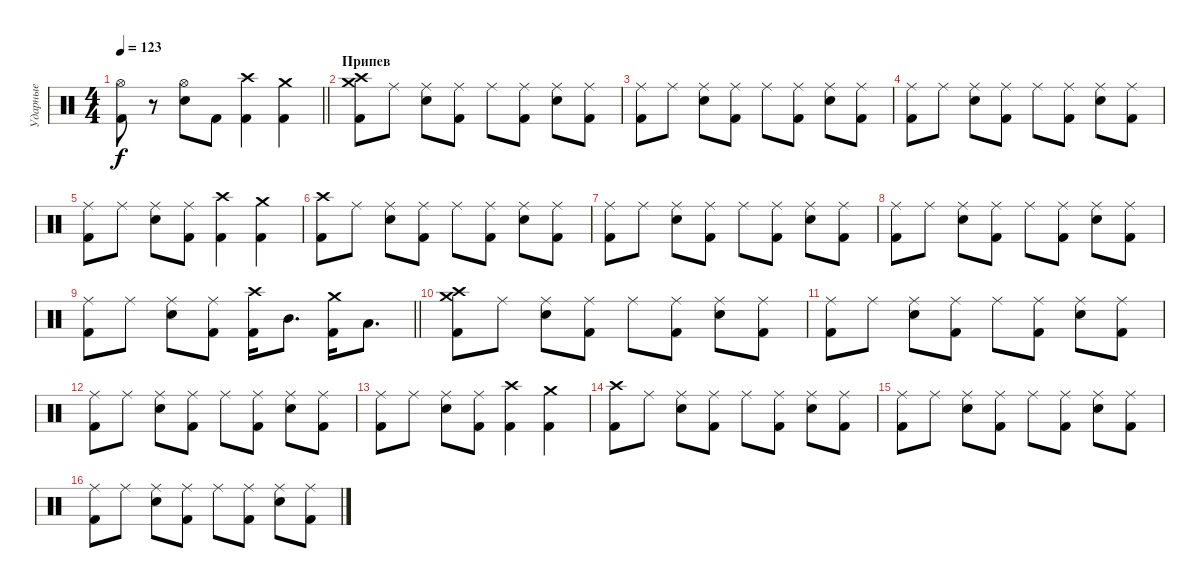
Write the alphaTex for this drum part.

\track ("Ударные" "Ударные") {instrument percussion}
\staff {score}
\articulation defaults
\ts (4 4)
\tempo 123
\clef neutral
\barLineRight lightlight
\ks c
("Hi-Hat (open)" "Kick (hit) 2").8{dy f} r.8 ("Hi-Hat (open)" "Electric Snare (hit)").8 "Kick (hit) 2".8 ("Kick (hit) 2" "Crash high (hit)").4 ("Kick (hit) 2" "Crash medium (hit)").4 |
\section ("" "Припев")
("Crash high (hit)" "Kick (hit) 2" "Crash medium (hit)").8 "Ride (middle)".8 ("Ride (middle)" "Electric Snare (hit)").8 ("Ride (middle)" "Kick (hit) 2").8 "Ride (middle)".8 ("Ride (middle)" "Kick (hit) 2").8 ("Ride (middle)" "Electric Snare (hit)").8 ("Ride (middle)" "Kick (hit) 2").8 |
("Ride (middle)" "Kick (hit) 2").8 "Ride (middle)".8 ("Ride (middle)" "Electric Snare (hit)").8 ("Ride (middle)" "Kick (hit) 2").8 "Ride (middle)".8 ("Ride (middle)" "Kick (hit) 2").8 ("Ride (middle)" "Electric Snare (hit)").8 ("Ride (middle)" "Kick (hit) 2").8 |
("Ride (middle)" "Kick (hit) 2").8 "Ride (middle)".8 ("Ride (middle)" "Electric Snare (hit)").8 ("Ride (middle)" "Kick (hit) 2").8 "Ride (middle)".8 ("Ride (middle)" "Kick (hit) 2").8 ("Ride (middle)" "Electric Snare (hit)").8 ("Ride (middle)" "Kick (hit) 2").8 |
("Ride (middle)" "Kick (hit) 2").8 "Ride (middle)".8 ("Ride (middle)" "Electric Snare (hit)").8 ("Ride (middle)" "Kick (hit) 2").8 ("Kick (hit) 2" "Crash high (hit)").4 ("Kick (hit) 2" "Crash medium (hit)").4 |
("Crash high (hit)" "Kick (hit) 2").8 "Ride (middle)".8 ("Ride (middle)" "Electric Snare (hit)").8 ("Ride (middle)" "Kick (hit) 2").8 "Ride (middle)".8 ("Ride (middle)" "Kick (hit) 2").8 ("Ride (middle)" "Electric Snare (hit)").8 ("Ride (middle)" "Kick (hit) 2").8 |
("Ride (middle)" "Kick (hit) 2").8 "Ride (middle)".8 ("Ride (middle)" "Electric Snare (hit)").8 ("Ride (middle)" "Kick (hit) 2").8 "Ride (middle)".8 ("Ride (middle)" "Kick (hit) 2").8 ("Ride (middle)" "Electric Snare (hit)").8 ("Ride (middle)" "Kick (hit) 2").8 |
("Ride (middle)" "Kick (hit) 2").8 "Ride (middle)".8 ("Ride (middle)" "Electric Snare (hit)").8 ("Ride (middle)" "Kick (hit) 2").8 "Ride (middle)".8 ("Ride (middle)" "Kick (hit) 2").8 ("Ride (middle)" "Electric Snare (hit)").8 ("Ride (middle)" "Kick (hit) 2").8 |
\barLineRight lightlight
("Ride (middle)" "Kick (hit) 2").8 "Ride (middle)".8 ("Ride (middle)" "Electric Snare (hit)").8 ("Ride (middle)" "Kick (hit) 2").8 ("Kick (hit) 2" "Crash high (hit)").16 "Mid Tom (hit)".8{d} ("Kick (hit) 2" "Crash medium (hit)").16 "Low Tom (hit)".8{d} |
("Crash high (hit)" "Kick (hit) 2" "Crash medium (hit)").8 "Ride (middle)".8 ("Ride (middle)" "Electric Snare (hit)").8 ("Ride (middle)" "Kick (hit) 2").8 "Ride (middle)".8 ("Ride (middle)" "Kick (hit) 2").8 ("Ride (middle)" "Electric Snare (hit)").8 ("Ride (middle)" "Kick (hit) 2").8 |
("Ride (middle)" "Kick (hit) 2").8 "Ride (middle)".8 ("Ride (middle)" "Electric Snare (hit)").8 ("Ride (middle)" "Kick (hit) 2").8 "Ride (middle)".8 ("Ride (middle)" "Kick (hit) 2").8 ("Ride (middle)" "Electric Snare (hit)").8 ("Ride (middle)" "Kick (hit) 2").8 |
("Ride (middle)" "Kick (hit) 2").8 "Ride (middle)".8 ("Ride (middle)" "Electric Snare (hit)").8 ("Ride (middle)" "Kick (hit) 2").8 "Ride (middle)".8 ("Ride (middle)" "Kick (hit) 2").8 ("Ride (middle)" "Electric Snare (hit)").8 ("Ride (middle)" "Kick (hit) 2").8 |
("Ride (middle)" "Kick (hit) 2").8 "Ride (middle)".8 ("Ride (middle)" "Electric Snare (hit)").8 ("Ride (middle)" "Kick (hit) 2").8 ("Kick (hit) 2" "Crash high (hit)").4 ("Kick (hit) 2" "Crash medium (hit)").4 |
("Crash high (hit)" "Kick (hit) 2").8 "Ride (middle)".8 ("Ride (middle)" "Electric Snare (hit)").8 ("Ride (middle)" "Kick (hit) 2").8 "Ride (middle)".8 ("Ride (middle)" "Kick (hit) 2").8 ("Ride (middle)" "Electric Snare (hit)").8 ("Ride (middle)" "Kick (hit) 2").8 |
("Ride (middle)" "Kick (hit) 2").8 "Ride (middle)".8 ("Ride (middle)" "Electric Snare (hit)").8 ("Ride (middle)" "Kick (hit) 2").8 "Ride (middle)".8 ("Ride (middle)" "Kick (hit) 2").8 ("Ride (middle)" "Electric Snare (hit)").8 ("Ride (middle)" "Kick (hit) 2").8 |
("Ride (middle)" "Kick (hit) 2").8 "Ride (middle)".8 ("Ride (middle)" "Electric Snare (hit)").8 ("Ride (middle)" "Kick (hit) 2").8 "Ride (middle)".8 ("Ride (middle)" "Kick (hit) 2").8 ("Ride (middle)" "Electric Snare (hit)").8 ("Ride (middle)" "Kick (hit) 2").8
